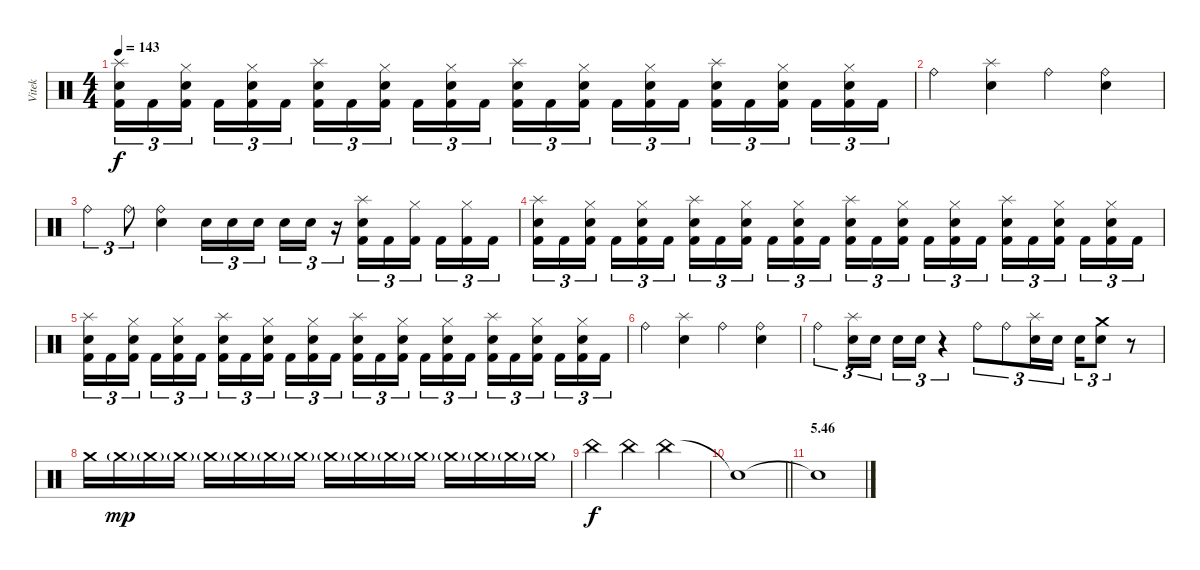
\track ("Vitek" "Vitek") {instrument percussion}
\staff {score}
\articulation defaults
\ts (4 4)
\tempo 143
\clef neutral
\ks c
("Splash (hit)" "Electric Snare (hit)" "Kick (hit) 2").16{tu (3 2) dy f} "Kick (hit) 2".16{tu (3 2)} ("Hi-Hat (closed)" "Electric Snare (hit)" "Kick (hit) 2").16{tu (3 2) beam splitsecondary} "Kick (hit) 2".16{tu (3 2)} ("Hi-Hat (closed)" "Electric Snare (hit)" "Kick (hit) 2").16{tu (3 2)} "Kick (hit) 2".16{tu (3 2)} ("Splash (hit)" "Electric Snare (hit)" "Kick (hit) 2").16{tu (3 2)} "Kick (hit) 2".16{tu (3 2)} ("Hi-Hat (closed)" "Electric Snare (hit)" "Kick (hit) 2").16{tu (3 2) beam splitsecondary} "Kick (hit) 2".16{tu (3 2)} ("Hi-Hat (closed)" "Electric Snare (hit)" "Kick (hit) 2").16{tu (3 2)} "Kick (hit) 2".16{tu (3 2)} ("Splash (hit)" "Electric Snare (hit)" "Kick (hit) 2").16{tu (3 2)} "Kick (hit) 2".16{tu (3 2)} ("Hi-Hat (closed)" "Electric Snare (hit)" "Kick (hit) 2").16{tu (3 2) beam splitsecondary} "Kick (hit) 2".16{tu (3 2)} ("Hi-Hat (closed)" "Electric Snare (hit)" "Kick (hit) 2").16{tu (3 2)} "Kick (hit) 2".16{tu (3 2)} ("Splash (hit)" "Electric Snare (hit)" "Kick (hit) 2").16{tu (3 2)} "Kick (hit) 2".16{tu (3 2)} ("Hi-Hat (closed)" "Electric Snare (hit)" "Kick (hit) 2").16{tu (3 2) beam splitsecondary} "Kick (hit) 2".16{tu (3 2)} ("Hi-Hat (closed)" "Electric Snare (hit)" "Kick (hit) 2").16{tu (3 2)} "Kick (hit) 2".16{tu (3 2)} |
"Ride (bell)".4 ("Splash (hit)" "Electric Snare (hit)").4 "Ride (bell)".4 ("Ride (bell)" "Electric Snare (hit)").4 |
"Ride (bell)".4{tu (3 2)} "Ride (bell)".8{tu (3 2)} ("Ride (bell)" "Electric Snare (hit)").4 "Electric Snare (hit)".16{tu (3 2)} "Electric Snare (hit)".16{tu (3 2)} "Electric Snare (hit)".16{tu (3 2) beam splitsecondary} "Electric Snare (hit)".16{tu (3 2)} "Electric Snare (hit)".16{tu (3 2)} r.16{tu (3 2)} ("Splash (hit)" "Electric Snare (hit)" "Kick (hit) 2").16{tu (3 2)} "Kick (hit) 2".16{tu (3 2)} ("Hi-Hat (closed)" "Kick (hit) 2").16{tu (3 2) beam splitsecondary} "Kick (hit) 2".16{tu (3 2)} ("Hi-Hat (closed)" "Kick (hit) 2").16{tu (3 2)} "Kick (hit) 2".16{tu (3 2)} |
("Splash (hit)" "Electric Snare (hit)" "Kick (hit) 2").16{tu (3 2)} "Kick (hit) 2".16{tu (3 2)} ("Hi-Hat (closed)" "Electric Snare (hit)" "Kick (hit) 2").16{tu (3 2) beam splitsecondary} "Kick (hit) 2".16{tu (3 2)} ("Hi-Hat (closed)" "Electric Snare (hit)" "Kick (hit) 2").16{tu (3 2)} "Kick (hit) 2".16{tu (3 2)} ("Splash (hit)" "Electric Snare (hit)" "Kick (hit) 2").16{tu (3 2)} "Kick (hit) 2".16{tu (3 2)} ("Hi-Hat (closed)" "Electric Snare (hit)" "Kick (hit) 2").16{tu (3 2) beam splitsecondary} "Kick (hit) 2".16{tu (3 2)} ("Hi-Hat (closed)" "Electric Snare (hit)" "Kick (hit) 2").16{tu (3 2)} "Kick (hit) 2".16{tu (3 2)} ("Splash (hit)" "Electric Snare (hit)" "Kick (hit) 2").16{tu (3 2)} "Kick (hit) 2".16{tu (3 2)} ("Hi-Hat (closed)" "Electric Snare (hit)" "Kick (hit) 2").16{tu (3 2) beam splitsecondary} "Kick (hit) 2".16{tu (3 2)} ("Hi-Hat (closed)" "Electric Snare (hit)" "Kick (hit) 2").16{tu (3 2)} "Kick (hit) 2".16{tu (3 2)} ("Splash (hit)" "Electric Snare (hit)" "Kick (hit) 2").16{tu (3 2)} "Kick (hit) 2".16{tu (3 2)} ("Hi-Hat (closed)" "Electric Snare (hit)" "Kick (hit) 2").16{tu (3 2) beam splitsecondary} "Kick (hit) 2".16{tu (3 2)} ("Hi-Hat (closed)" "Electric Snare (hit)" "Kick (hit) 2").16{tu (3 2)} "Kick (hit) 2".16{tu (3 2)} |
("Splash (hit)" "Electric Snare (hit)" "Kick (hit) 2").16{tu (3 2)} "Kick (hit) 2".16{tu (3 2)} ("Hi-Hat (closed)" "Electric Snare (hit)" "Kick (hit) 2").16{tu (3 2) beam splitsecondary} "Kick (hit) 2".16{tu (3 2)} ("Hi-Hat (closed)" "Electric Snare (hit)" "Kick (hit) 2").16{tu (3 2)} "Kick (hit) 2".16{tu (3 2)} ("Splash (hit)" "Electric Snare (hit)" "Kick (hit) 2").16{tu (3 2)} "Kick (hit) 2".16{tu (3 2)} ("Hi-Hat (closed)" "Electric Snare (hit)" "Kick (hit) 2").16{tu (3 2) beam splitsecondary} "Kick (hit) 2".16{tu (3 2)} ("Hi-Hat (closed)" "Electric Snare (hit)" "Kick (hit) 2").16{tu (3 2)} "Kick (hit) 2".16{tu (3 2)} ("Splash (hit)" "Electric Snare (hit)" "Kick (hit) 2").16{tu (3 2)} "Kick (hit) 2".16{tu (3 2)} ("Hi-Hat (closed)" "Electric Snare (hit)" "Kick (hit) 2").16{tu (3 2) beam splitsecondary} "Kick (hit) 2".16{tu (3 2)} ("Hi-Hat (closed)" "Electric Snare (hit)" "Kick (hit) 2").16{tu (3 2)} "Kick (hit) 2".16{tu (3 2)} ("Splash (hit)" "Electric Snare (hit)" "Kick (hit) 2").16{tu (3 2)} "Kick (hit) 2".16{tu (3 2)} ("Hi-Hat (closed)" "Electric Snare (hit)" "Kick (hit) 2").16{tu (3 2) beam splitsecondary} "Kick (hit) 2".16{tu (3 2)} ("Hi-Hat (closed)" "Electric Snare (hit)" "Kick (hit) 2").16{tu (3 2)} "Kick (hit) 2".16{tu (3 2)} |
"Ride (bell)".4 ("Splash (hit)" "Electric Snare (hit)").4 "Ride (bell)".4 ("Ride (bell)" "Electric Snare (hit)").4 |
"Ride (bell)".4{tu (3 2)} ("Splash (hit)" "Electric Snare (hit)").16{tu (3 2)} "Electric Snare (hit)".16{tu (3 2)} "Electric Snare (hit)".16{tu (3 2)} "Electric Snare (hit)".16{tu (3 2)} r.4{tu (3 2)} "Ride (bell)".8{tu (3 2)} "Ride (bell)".8{tu (3 2)} ("Splash (hit)" "Electric Snare (hit)").16{tu (3 2)} "Electric Snare (hit)".16{tu (3 2)} "Electric Snare (hit)".16{tu (3 2)} ("Crash medium (hit)" "Electric Snare (hit)").8{tu (3 2)} r.8 |
"Crash medium (hit)".16 "Crash medium (hit)"{g}.16{dy mp} "Crash medium (hit)"{g}.16 "Crash medium (hit)"{g}.16 "Crash medium (hit)"{g}.16 "Crash medium (hit)"{g}.16 "Crash medium (hit)"{g}.16 "Crash medium (hit)"{g}.16 "Crash medium (hit)"{g}.16 "Crash medium (hit)"{g}.16 "Crash medium (hit)"{g}.16 "Crash medium (hit)"{g}.16 "Crash medium (hit)"{g}.16 "Crash medium (hit)"{g}.16 "Crash medium (hit)"{g}.16 "Crash medium (hit)"{g}.16 |
"China (hit)".4{dy f} "China (hit)".4 "China (hit)".2 |
\barLineRight lightlight "Snare (hit)"{t}.1
|
\section ("" "5.46")
"Snare (hit)"{t}.1
